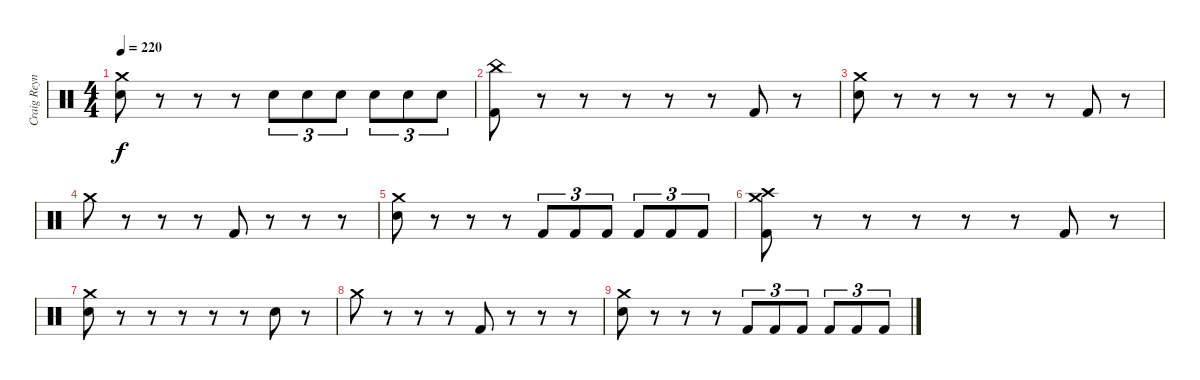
\track ("Craig Reynolds" "Craig Reyn") {instrument percussion}
\staff {score}
\articulation defaults
\ts (4 4)
\tempo 220
\clef neutral
\ks c
("Crash medium (hit)" "Electric Snare (hit)").8{dy f} r.8 r.8 r.8 "Electric Snare (hit)".8{tu (3 2)} "Electric Snare (hit)".8{tu (3 2)} "Electric Snare (hit)".8{tu (3 2)} "Electric Snare (hit)".8{tu (3 2)} "Electric Snare (hit)".8{tu (3 2)} "Electric Snare (hit)".8{tu (3 2)} |
("China (hit)" "Kick (hit) 2").8 r.8 r.8 r.8 r.8 r.8 "Kick (hit) 2".8 r.8 |
("Crash medium (hit)" "Electric Snare (hit)").8 r.8 r.8 r.8 r.8 r.8 "Kick (hit) 2".8 r.8 |
"Crash medium (hit)".8 r.8 r.8 r.8 "Kick (hit) 2".8 r.8 r.8 r.8 |
("Crash medium (hit)" "Electric Snare (hit)").8 r.8 r.8 r.8 "Kick (hit) 2".8{tu (3 2)} "Kick (hit) 2".8{tu (3 2)} "Kick (hit) 2".8{tu (3 2)} "Kick (hit) 2".8{tu (3 2)} "Kick (hit) 2".8{tu (3 2)} "Kick (hit) 2".8{tu (3 2)} |
("Crash high (hit)" "Crash medium (hit)" "Kick (hit) 2").8 r.8 r.8 r.8 r.8 r.8 "Kick (hit) 2".8 r.8 |
("Crash medium (hit)" "Electric Snare (hit)").8 r.8 r.8 r.8 r.8 r.8 "Electric Snare (hit)".8 r.8 |
"Crash medium (hit)".8 r.8 r.8 r.8 "Kick (hit) 2".8 r.8 r.8 r.8 |
("Crash medium (hit)" "Electric Snare (hit)").8 r.8 r.8 r.8 "Kick (hit) 2".8{tu (3 2)} "Kick (hit) 2".8{tu (3 2)} "Kick (hit) 2".8{tu (3 2)} "Kick (hit) 2".8{tu (3 2)} "Kick (hit) 2".8{tu (3 2)} "Kick (hit) 2".8{tu (3 2)}
